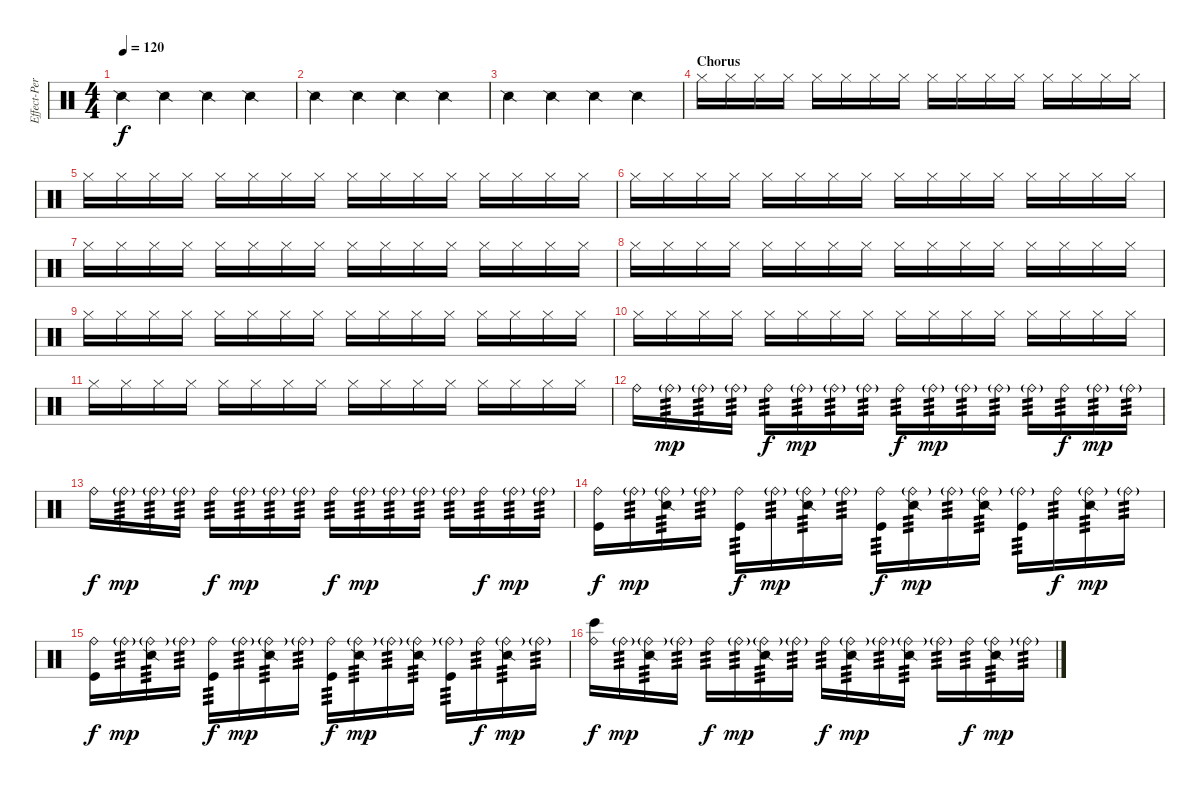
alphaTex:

\track ("Effect-Percs" "Effect-Per") {instrument percussion}
\staff {score}
\articulation defaults
\ts (4 4)
\tempo 120
\clef neutral
\ks c "Snare (side stick) 2".4{dy f} "Snare (side stick) 2".4 "Snare (side stick) 2".4 "Snare (side stick) 2".4
|
"Snare (side stick) 2".4 "Snare (side stick) 2".4 "Snare (side stick) 2".4 "Snare (side stick) 2".4 |
"Snare (side stick) 2".4 "Snare (side stick) 2".4 "Snare (side stick) 2".4 "Snare (side stick) 2".4 |
\section ("" "Chorus")
"Hi-Hat (closed)".16 "Hi-Hat (closed)".16 "Hi-Hat (closed)".16 "Hi-Hat (closed)".16 "Hi-Hat (closed)".16 "Hi-Hat (closed)".16 "Hi-Hat (closed)".16 "Hi-Hat (closed)".16 "Hi-Hat (closed)".16 "Hi-Hat (closed)".16 "Hi-Hat (closed)".16 "Hi-Hat (closed)".16 "Hi-Hat (closed)".16 "Hi-Hat (closed)".16 "Hi-Hat (closed)".16 "Hi-Hat (closed)".16 |
"Hi-Hat (closed)".16 "Hi-Hat (closed)".16 "Hi-Hat (closed)".16 "Hi-Hat (closed)".16 "Hi-Hat (closed)".16 "Hi-Hat (closed)".16 "Hi-Hat (closed)".16 "Hi-Hat (closed)".16 "Hi-Hat (closed)".16 "Hi-Hat (closed)".16 "Hi-Hat (closed)".16 "Hi-Hat (closed)".16 "Hi-Hat (closed)".16 "Hi-Hat (closed)".16 "Hi-Hat (closed)".16 "Hi-Hat (closed)".16 |
"Hi-Hat (closed)".16 "Hi-Hat (closed)".16 "Hi-Hat (closed)".16 "Hi-Hat (closed)".16 "Hi-Hat (closed)".16 "Hi-Hat (closed)".16 "Hi-Hat (closed)".16 "Hi-Hat (closed)".16 "Hi-Hat (closed)".16 "Hi-Hat (closed)".16 "Hi-Hat (closed)".16 "Hi-Hat (closed)".16 "Hi-Hat (closed)".16 "Hi-Hat (closed)".16 "Hi-Hat (closed)".16 "Hi-Hat (closed)".16 |
"Hi-Hat (closed)".16 "Hi-Hat (closed)".16 "Hi-Hat (closed)".16 "Hi-Hat (closed)".16 "Hi-Hat (closed)".16 "Hi-Hat (closed)".16 "Hi-Hat (closed)".16 "Hi-Hat (closed)".16 "Hi-Hat (closed)".16 "Hi-Hat (closed)".16 "Hi-Hat (closed)".16 "Hi-Hat (closed)".16 "Hi-Hat (closed)".16 "Hi-Hat (closed)".16 "Hi-Hat (closed)".16 "Hi-Hat (closed)".16 |
"Hi-Hat (closed)".16 "Hi-Hat (closed)".16 "Hi-Hat (closed)".16 "Hi-Hat (closed)".16 "Hi-Hat (closed)".16 "Hi-Hat (closed)".16 "Hi-Hat (closed)".16 "Hi-Hat (closed)".16 "Hi-Hat (closed)".16 "Hi-Hat (closed)".16 "Hi-Hat (closed)".16 "Hi-Hat (closed)".16 "Hi-Hat (closed)".16 "Hi-Hat (closed)".16 "Hi-Hat (closed)".16 "Hi-Hat (closed)".16 |
"Hi-Hat (closed)".16 "Hi-Hat (closed)".16 "Hi-Hat (closed)".16 "Hi-Hat (closed)".16 "Hi-Hat (closed)".16 "Hi-Hat (closed)".16 "Hi-Hat (closed)".16 "Hi-Hat (closed)".16 "Hi-Hat (closed)".16 "Hi-Hat (closed)".16 "Hi-Hat (closed)".16 "Hi-Hat (closed)".16 "Hi-Hat (closed)".16 "Hi-Hat (closed)".16 "Hi-Hat (closed)".16 "Hi-Hat (closed)".16 |
"Hi-Hat (closed)".16 "Hi-Hat (closed)".16 "Hi-Hat (closed)".16 "Hi-Hat (closed)".16 "Hi-Hat (closed)".16 "Hi-Hat (closed)".16 "Hi-Hat (closed)".16 "Hi-Hat (closed)".16 "Hi-Hat (closed)".16 "Hi-Hat (closed)".16 "Hi-Hat (closed)".16 "Hi-Hat (closed)".16 "Hi-Hat (closed)".16 "Hi-Hat (closed)".16 "Hi-Hat (closed)".16 "Hi-Hat (closed)".16 |
"Hi-Hat (closed)".16 "Hi-Hat (closed)".16 "Hi-Hat (closed)".16 "Hi-Hat (closed)".16 "Hi-Hat (closed)".16 "Hi-Hat (closed)".16 "Hi-Hat (closed)".16 "Hi-Hat (closed)".16 "Hi-Hat (closed)".16 "Hi-Hat (closed)".16 "Hi-Hat (closed)".16 "Hi-Hat (closed)".16 "Hi-Hat (closed)".16 "Hi-Hat (closed)".16 "Hi-Hat (closed)".16 "Hi-Hat (closed)".16 |
"Ride (bell)".16 "Ride (bell)"{g}.16{tp 3 dy mp} "Ride (bell)"{g}.16{tp 3} "Ride (bell)"{g}.16{tp 3} "Ride (bell)".16{tp 3 dy f} "Ride (bell)"{g}.16{tp 3 dy mp} "Ride (bell)"{g}.16{tp 3} "Ride (bell)"{g}.16{tp 3} "Ride (bell)".16{tp 3 dy f} "Ride (bell)"{g}.16{tp 3 dy mp} "Ride (bell)"{g}.16{tp 3} "Ride (bell)"{g}.16{tp 3} "Ride (bell)"{g}.16{tp 3} "Ride (bell)".16{tp 3 dy f} "Ride (bell)"{g}.16{tp 3 dy mp} "Ride (bell)"{g}.16{tp 3} |
"Ride (bell)".16{dy f} "Ride (bell)"{g}.16{tp 3 dy mp} "Ride (bell)"{g}.16{tp 3} "Ride (bell)"{g}.16{tp 3} "Ride (bell)".16{tp 3 dy f} "Ride (bell)"{g}.16{tp 3 dy mp} "Ride (bell)"{g}.16{tp 3} "Ride (bell)"{g}.16{tp 3} "Ride (bell)".16{tp 3 dy f} "Ride (bell)"{g}.16{tp 3 dy mp} "Ride (bell)"{g}.16{tp 3} "Ride (bell)"{g}.16{tp 3} "Ride (bell)"{g}.16{tp 3} "Ride (bell)".16{tp 3 dy f} "Ride (bell)"{g}.16{tp 3 dy mp} "Ride (bell)"{g}.16{tp 3} |
("Ride (bell)" "Kick (hit)").16{dy f} "Ride (bell)"{g}.16{tp 3 dy mp} ("Ride (bell)"{g} "Snare (side stick) 2").16{tp 3} "Ride (bell)"{g}.16{tp 3} ("Ride (bell)" "Kick (hit)").16{tp 3 dy f} "Ride (bell)"{g}.16{tp 3 dy mp} ("Ride (bell)"{g} "Snare (side stick) 2").16{tp 3} "Ride (bell)"{g}.16{tp 3} ("Ride (bell)" "Kick (hit)").16{tp 3 dy f} ("Ride (bell)"{g} "Snare (side stick) 2").16{tp 3 dy mp} "Ride (bell)"{g}.16{tp 3} ("Ride (bell)"{g} "Snare (side stick) 2").16{tp 3} ("Ride (bell)"{g} "Kick (hit)").16{tp 3} "Ride (bell)".16{tp 3 dy f} ("Ride (bell)"{g} "Snare (side stick) 2").16{tp 3 dy mp} "Ride (bell)"{g}.16{tp 3} |
("Ride (bell)" "Kick (hit)").16{dy f} "Ride (bell)"{g}.16{tp 3 dy mp} ("Ride (bell)"{g} "Snare (side stick) 2").16{tp 3} "Ride (bell)"{g}.16{tp 3} ("Ride (bell)" "Kick (hit)").16{tp 3 dy f} "Ride (bell)"{g}.16{tp 3 dy mp} ("Ride (bell)"{g} "Snare (side stick) 2").16{tp 3} "Ride (bell)"{g}.16{tp 3} ("Ride (bell)" "Kick (hit)").16{tp 3 dy f} ("Ride (bell)"{g} "Snare (side stick) 2").16{tp 3 dy mp} "Ride (bell)"{g}.16{tp 3} ("Ride (bell)"{g} "Snare (side stick) 2").16{tp 3} ("Ride (bell)"{g} "Kick (hit)").16{tp 3} "Ride (bell)".16{tp 3 dy f} ("Ride (bell)"{g} "Snare (side stick) 2").16{tp 3 dy mp} "Ride (bell)"{g}.16{tp 3} |
("Ride (bell)" "Bongo High (hit)").16{dy f} "Ride (bell)"{g}.16{tp 3 dy mp} ("Ride (bell)"{g} "Snare (side stick) 2").16{tp 3} "Ride (bell)"{g}.16{tp 3} "Ride (bell)".16{tp 3 dy f} "Ride (bell)"{g}.16{tp 3 dy mp} ("Ride (bell)"{g} "Snare (side stick) 2").16{tp 3} "Ride (bell)"{g}.16{tp 3} "Ride (bell)".16{tp 3 dy f} ("Ride (bell)"{g} "Snare (side stick) 2").16{tp 3 dy mp} "Ride (bell)"{g}.16{tp 3} ("Ride (bell)"{g} "Snare (side stick) 2").16{tp 3} "Ride (bell)"{g}.16{tp 3} "Ride (bell)".16{tp 3 dy f} ("Ride (bell)"{g} "Snare (side stick) 2").16{tp 3 dy mp} "Ride (bell)"{g}.16{tp 3}
